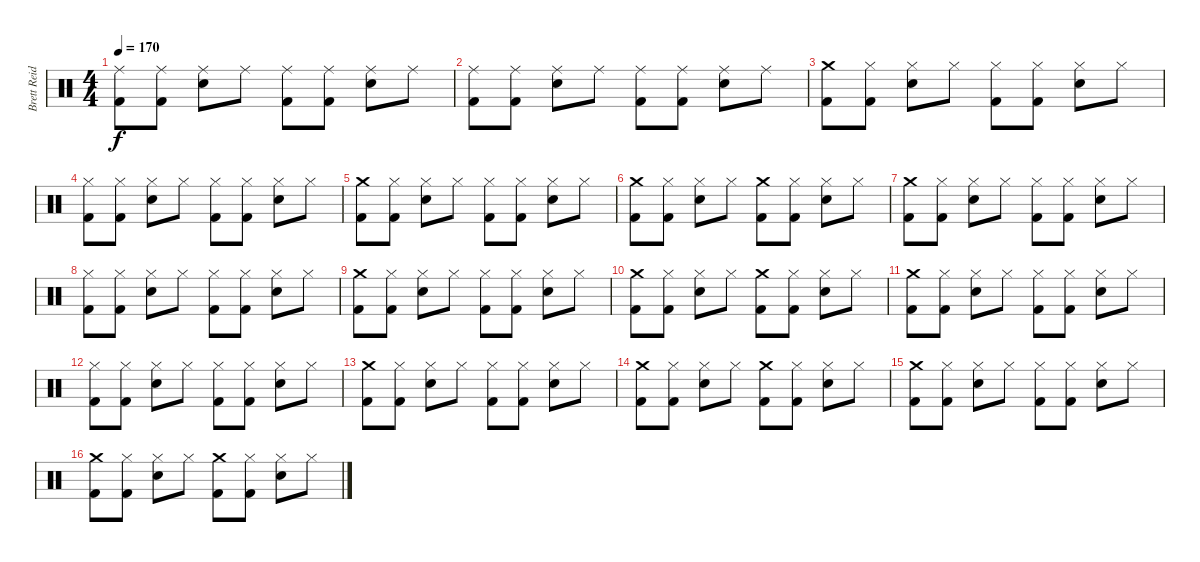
\track ("Brett Reid" "Brett Reid") {instrument percussion}
\staff {score}
\articulation defaults
\ts (4 4)
\tempo 170
\clef neutral
\ks c
("Ride (middle)" "Kick (hit) 2").8{dy f} ("Ride (middle)" "Kick (hit) 2").8 ("Ride (middle)" "Snare (hit) 2").8 "Ride (middle)".8 ("Ride (middle)" "Kick (hit) 2").8 ("Ride (middle)" "Kick (hit) 2").8 ("Ride (middle)" "Snare (hit) 2").8 "Ride (middle)".8 |
("Ride (middle)" "Kick (hit) 2").8 ("Ride (middle)" "Kick (hit) 2").8 ("Ride (middle)" "Snare (hit) 2").8 "Ride (middle)".8 ("Ride (middle)" "Kick (hit) 2").8 ("Ride (middle)" "Kick (hit) 2").8 ("Ride (middle)" "Snare (hit) 2").8 "Ride (middle)".8 |
("Crash medium (hit)" "Kick (hit) 2").8 ("Hi-Hat (closed)" "Kick (hit) 2").8 ("Hi-Hat (closed)" "Snare (hit) 2").8 "Hi-Hat (closed)".8 ("Hi-Hat (closed)" "Kick (hit) 2").8 ("Hi-Hat (closed)" "Kick (hit) 2").8 ("Hi-Hat (closed)" "Snare (hit) 2").8 "Hi-Hat (closed)".8 |
("Hi-Hat (closed)" "Kick (hit) 2").8 ("Hi-Hat (closed)" "Kick (hit) 2").8 ("Hi-Hat (closed)" "Snare (hit) 2").8 "Hi-Hat (closed)".8 ("Hi-Hat (closed)" "Kick (hit) 2").8 ("Hi-Hat (closed)" "Kick (hit) 2").8 ("Hi-Hat (closed)" "Snare (hit) 2").8 "Hi-Hat (closed)".8 |
("Crash medium (hit)" "Kick (hit) 2").8 ("Hi-Hat (closed)" "Kick (hit) 2").8 ("Hi-Hat (closed)" "Snare (hit) 2").8 "Hi-Hat (closed)".8 ("Hi-Hat (closed)" "Kick (hit) 2").8 ("Hi-Hat (closed)" "Kick (hit) 2").8 ("Hi-Hat (closed)" "Snare (hit) 2").8 "Hi-Hat (closed)".8 |
("Crash medium (hit)" "Kick (hit) 2").8 ("Hi-Hat (closed)" "Kick (hit) 2").8 ("Hi-Hat (closed)" "Snare (hit) 2").8 "Hi-Hat (closed)".8 ("Crash medium (hit)" "Kick (hit) 2").8 ("Hi-Hat (closed)" "Kick (hit) 2").8 ("Hi-Hat (closed)" "Snare (hit) 2").8 "Hi-Hat (closed)".8 |
("Crash medium (hit)" "Kick (hit) 2").8 ("Hi-Hat (closed)" "Kick (hit) 2").8 ("Hi-Hat (closed)" "Snare (hit) 2").8 "Hi-Hat (closed)".8 ("Hi-Hat (closed)" "Kick (hit) 2").8 ("Hi-Hat (closed)" "Kick (hit) 2").8 ("Hi-Hat (closed)" "Snare (hit) 2").8 "Hi-Hat (closed)".8 |
("Hi-Hat (closed)" "Kick (hit) 2").8 ("Hi-Hat (closed)" "Kick (hit) 2").8 ("Hi-Hat (closed)" "Snare (hit) 2").8 "Hi-Hat (closed)".8 ("Hi-Hat (closed)" "Kick (hit) 2").8 ("Hi-Hat (closed)" "Kick (hit) 2").8 ("Hi-Hat (closed)" "Snare (hit) 2").8 "Hi-Hat (closed)".8 |
("Crash medium (hit)" "Kick (hit) 2").8 ("Hi-Hat (closed)" "Kick (hit) 2").8 ("Hi-Hat (closed)" "Snare (hit) 2").8 "Hi-Hat (closed)".8 ("Hi-Hat (closed)" "Kick (hit) 2").8 ("Hi-Hat (closed)" "Kick (hit) 2").8 ("Hi-Hat (closed)" "Snare (hit) 2").8 "Hi-Hat (closed)".8 |
("Crash medium (hit)" "Kick (hit) 2").8 ("Hi-Hat (closed)" "Kick (hit) 2").8 ("Hi-Hat (closed)" "Snare (hit) 2").8 "Hi-Hat (closed)".8 ("Crash medium (hit)" "Kick (hit) 2").8 ("Hi-Hat (closed)" "Kick (hit) 2").8 ("Hi-Hat (closed)" "Snare (hit) 2").8 "Hi-Hat (closed)".8 |
("Crash medium (hit)" "Kick (hit) 2").8 ("Hi-Hat (closed)" "Kick (hit) 2").8 ("Hi-Hat (closed)" "Snare (hit) 2").8 "Hi-Hat (closed)".8 ("Hi-Hat (closed)" "Kick (hit) 2").8 ("Hi-Hat (closed)" "Kick (hit) 2").8 ("Hi-Hat (closed)" "Snare (hit) 2").8 "Hi-Hat (closed)".8 |
("Hi-Hat (closed)" "Kick (hit) 2").8 ("Hi-Hat (closed)" "Kick (hit) 2").8 ("Hi-Hat (closed)" "Snare (hit) 2").8 "Hi-Hat (closed)".8 ("Hi-Hat (closed)" "Kick (hit) 2").8 ("Hi-Hat (closed)" "Kick (hit) 2").8 ("Hi-Hat (closed)" "Snare (hit) 2").8 "Hi-Hat (closed)".8 |
("Crash medium (hit)" "Kick (hit) 2").8 ("Hi-Hat (closed)" "Kick (hit) 2").8 ("Hi-Hat (closed)" "Snare (hit) 2").8 "Hi-Hat (closed)".8 ("Hi-Hat (closed)" "Kick (hit) 2").8 ("Hi-Hat (closed)" "Kick (hit) 2").8 ("Hi-Hat (closed)" "Snare (hit) 2").8 "Hi-Hat (closed)".8 |
("Crash medium (hit)" "Kick (hit) 2").8 ("Hi-Hat (closed)" "Kick (hit) 2").8 ("Hi-Hat (closed)" "Snare (hit) 2").8 "Hi-Hat (closed)".8 ("Crash medium (hit)" "Kick (hit) 2").8 ("Hi-Hat (closed)" "Kick (hit) 2").8 ("Hi-Hat (closed)" "Snare (hit) 2").8 "Hi-Hat (closed)".8 |
("Crash medium (hit)" "Kick (hit) 2").8 ("Hi-Hat (closed)" "Kick (hit) 2").8 ("Hi-Hat (closed)" "Snare (hit) 2").8 "Hi-Hat (closed)".8 ("Hi-Hat (closed)" "Kick (hit) 2").8 ("Hi-Hat (closed)" "Kick (hit) 2").8 ("Hi-Hat (closed)" "Snare (hit) 2").8 "Hi-Hat (closed)".8 |
("Crash medium (hit)" "Kick (hit) 2").8 ("Hi-Hat (closed)" "Kick (hit) 2").8 ("Hi-Hat (closed)" "Snare (hit) 2").8 "Hi-Hat (closed)".8 ("Crash medium (hit)" "Kick (hit) 2").8 ("Hi-Hat (closed)" "Kick (hit) 2").8 ("Hi-Hat (closed)" "Snare (hit) 2").8 "Hi-Hat (closed)".8
